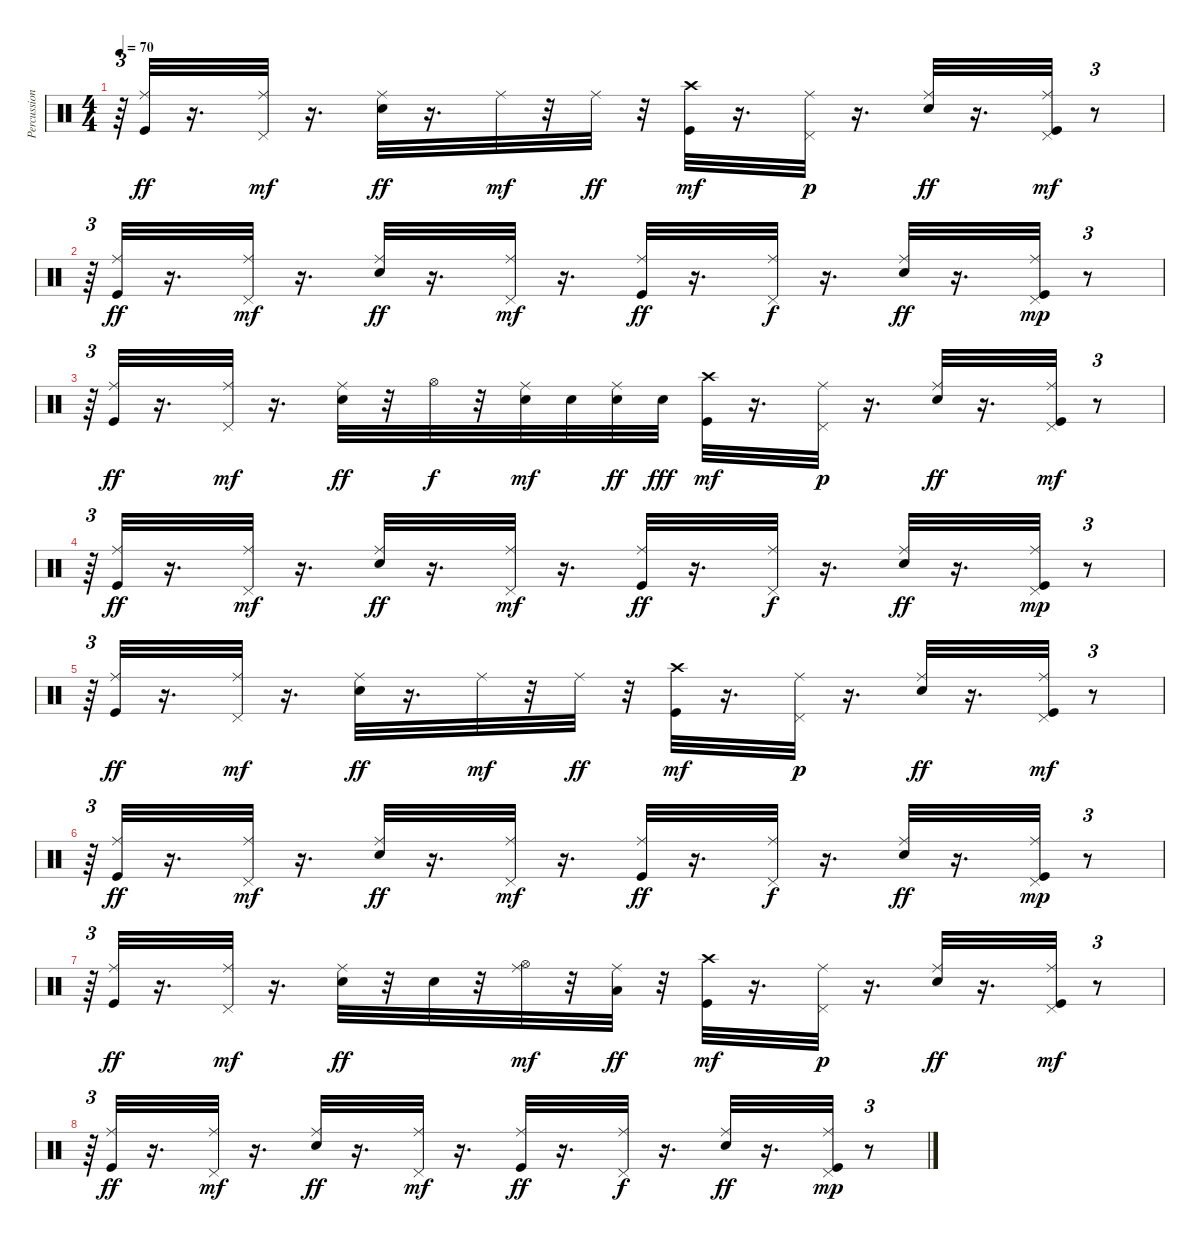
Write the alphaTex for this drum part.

\track ("Percussioni" "Percussion") {instrument percussion}
\staff {score}
\articulation defaults
\ts (4 4)
\tempo 70
\clef neutral
\ks c
r.64{tu (3 2) dy mp} ("Kick (hit)" "Ride (middle)").32{dy ff} r.16{d} ("Pedal Hi-Hat (hit)" "Ride (middle)").32{dy mf} r.16{d} ("Electric Snare (hit)" "Ride (middle)").32{dy ff} r.16{d} "Ride (middle)".32{dy mf} r.32 "Ride (middle)".32{dy ff} r.32 ("Kick (hit)" "Crash high (hit)").32{dy mf} r.16{d} ("Pedal Hi-Hat (hit)" "Ride (middle)").32{dy p} r.16{d} ("Electric Snare (hit)" "Ride (middle)").32{dy ff} r.16{d} ("Kick (hit)" "Pedal Hi-Hat (hit)" "Ride (middle)").32{dy mf} r.8{tu (3 2)} |
r.64{tu (3 2)} ("Kick (hit)" "Ride (middle)").32{dy ff} r.16{d} ("Pedal Hi-Hat (hit)" "Ride (middle)").32{dy mf} r.16{d} ("Electric Snare (hit)" "Ride (middle)").32{dy ff} r.16{d} ("Pedal Hi-Hat (hit)" "Ride (middle)").32{dy mf} r.16{d} ("Kick (hit)" "Ride (middle)").32{dy ff} r.16{d} ("Pedal Hi-Hat (hit)" "Ride (middle)").32{dy f} r.16{d} ("Electric Snare (hit)" "Ride (middle)").32{dy ff} r.16{d} ("Kick (hit)" "Pedal Hi-Hat (hit)" "Ride (middle)").32{dy mp} r.8{tu (3 2)} |
r.64{tu (3 2)} ("Kick (hit)" "Ride (middle)").32{dy ff} r.16{d} ("Pedal Hi-Hat (hit)" "Ride (middle)").32{dy mf} r.16{d} ("Electric Snare (hit)" "Ride (middle)").32{dy ff} r.32 "Hi-Hat (open)".32{dy f} r.32 ("Electric Snare (hit)" "Ride (middle)").32{dy mf} "Electric Snare (hit)".32 ("Electric Snare (hit)" "Ride (middle)").32{dy ff} "Electric Snare (hit)".32{dy fff} ("Kick (hit)" "Crash high (hit)").32{dy mf} r.16{d} ("Pedal Hi-Hat (hit)" "Ride (middle)").32{dy p} r.16{d} ("Electric Snare (hit)" "Ride (middle)").32{dy ff} r.16{d} ("Kick (hit)" "Pedal Hi-Hat (hit)" "Ride (middle)").32{dy mf} r.8{tu (3 2)} |
r.64{tu (3 2)} ("Kick (hit)" "Ride (middle)").32{dy ff} r.16{d} ("Pedal Hi-Hat (hit)" "Ride (middle)").32{dy mf} r.16{d} ("Electric Snare (hit)" "Ride (middle)").32{dy ff} r.16{d} ("Pedal Hi-Hat (hit)" "Ride (middle)").32{dy mf} r.16{d} ("Kick (hit)" "Ride (middle)").32{dy ff} r.16{d} ("Pedal Hi-Hat (hit)" "Ride (middle)").32{dy f} r.16{d} ("Electric Snare (hit)" "Ride (middle)").32{dy ff} r.16{d} ("Kick (hit)" "Pedal Hi-Hat (hit)" "Ride (middle)").32{dy mp} r.8{tu (3 2)} |
r.64{tu (3 2)} ("Kick (hit)" "Ride (middle)").32{dy ff} r.16{d} ("Pedal Hi-Hat (hit)" "Ride (middle)").32{dy mf} r.16{d} ("Electric Snare (hit)" "Ride (middle)").32{dy ff} r.16{d} "Ride (middle)".32{dy mf} r.32 "Ride (middle)".32{dy ff} r.32 ("Kick (hit)" "Crash high (hit)").32{dy mf} r.16{d} ("Pedal Hi-Hat (hit)" "Ride (middle)").32{dy p} r.16{d} ("Electric Snare (hit)" "Ride (middle)").32{dy ff} r.16{d} ("Kick (hit)" "Pedal Hi-Hat (hit)" "Ride (middle)").32{dy mf} r.8{tu (3 2)} |
r.64{tu (3 2)} ("Kick (hit)" "Ride (middle)").32{dy ff} r.16{d} ("Pedal Hi-Hat (hit)" "Ride (middle)").32{dy mf} r.16{d} ("Electric Snare (hit)" "Ride (middle)").32{dy ff} r.16{d} ("Pedal Hi-Hat (hit)" "Ride (middle)").32{dy mf} r.16{d} ("Kick (hit)" "Ride (middle)").32{dy ff} r.16{d} ("Pedal Hi-Hat (hit)" "Ride (middle)").32{dy f} r.16{d} ("Electric Snare (hit)" "Ride (middle)").32{dy ff} r.16{d} ("Kick (hit)" "Pedal Hi-Hat (hit)" "Ride (middle)").32{dy mp} r.8{tu (3 2)} |
r.64{tu (3 2)} ("Kick (hit)" "Ride (middle)").32{dy ff} r.16{d} ("Pedal Hi-Hat (hit)" "Ride (middle)").32{dy mf} r.16{d} ("Electric Snare (hit)" "Ride (middle)").32{dy ff} r.32 "Electric Snare (hit)".32 r.32 ("Hi-Hat (open)" "Ride (middle)").32{dy mf} r.32 ("Low Tom (hit)" "Ride (middle)").32{dy ff} r.32 ("Kick (hit)" "Crash high (hit)").32{dy mf} r.16{d} ("Pedal Hi-Hat (hit)" "Ride (middle)").32{dy p} r.16{d} ("Electric Snare (hit)" "Ride (middle)").32{dy ff} r.16{d} ("Kick (hit)" "Pedal Hi-Hat (hit)" "Ride (middle)").32{dy mf} r.8{tu (3 2)} |
r.64{tu (3 2)} ("Kick (hit)" "Ride (middle)").32{dy ff} r.16{d} ("Pedal Hi-Hat (hit)" "Ride (middle)").32{dy mf} r.16{d} ("Electric Snare (hit)" "Ride (middle)").32{dy ff} r.16{d} ("Pedal Hi-Hat (hit)" "Ride (middle)").32{dy mf} r.16{d} ("Kick (hit)" "Ride (middle)").32{dy ff} r.16{d} ("Pedal Hi-Hat (hit)" "Ride (middle)").32{dy f} r.16{d} ("Electric Snare (hit)" "Ride (middle)").32{dy ff} r.16{d} ("Kick (hit)" "Pedal Hi-Hat (hit)" "Ride (middle)").32{dy mp} r.8{tu (3 2)}
